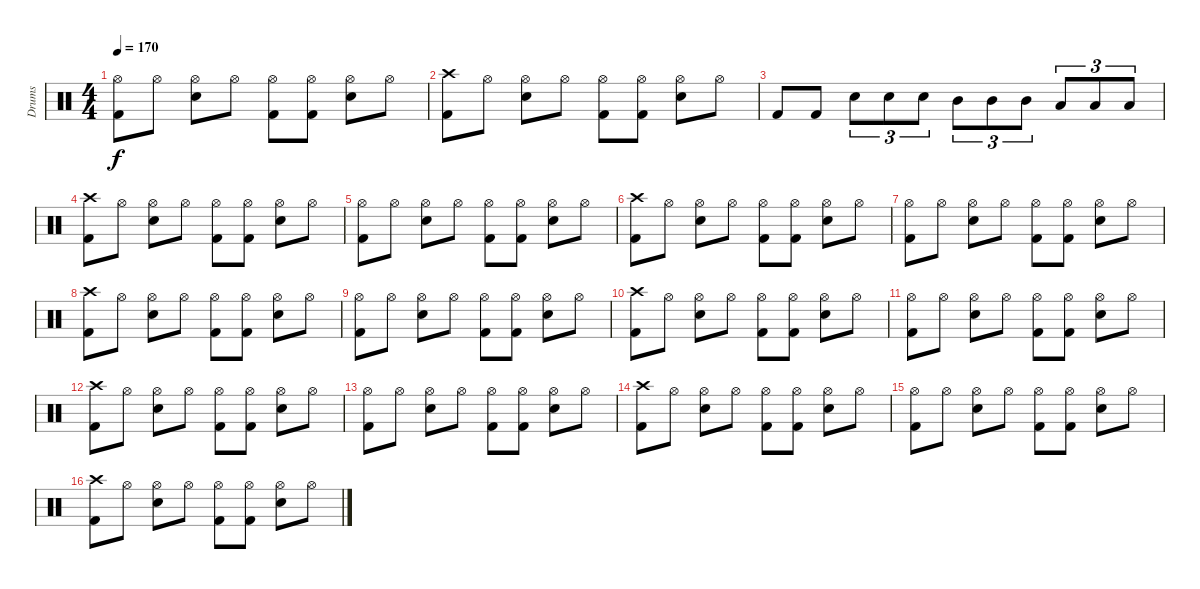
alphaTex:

\track ("Drums" "Drums") {instrument percussion}
\staff {score}
\articulation defaults
\ts (4 4)
\tempo 170
\clef neutral
\ks c
("Hi-Hat (open)" "Kick (hit) 2").8{dy f} "Hi-Hat (open)".8 ("Hi-Hat (open)" "Snare (hit) 2").8 "Hi-Hat (open)".8 ("Hi-Hat (open)" "Kick (hit) 2").8 ("Hi-Hat (open)" "Kick (hit) 2").8 ("Hi-Hat (open)" "Snare (hit) 2").8 "Hi-Hat (open)".8 |
("Crash high (hit)" "Kick (hit) 2").8 "Hi-Hat (open)".8 ("Hi-Hat (open)" "Snare (hit) 2").8 "Hi-Hat (open)".8 ("Hi-Hat (open)" "Kick (hit) 2").8 ("Hi-Hat (open)" "Kick (hit) 2").8 ("Hi-Hat (open)" "Snare (hit) 2").8 "Hi-Hat (open)".8 |
"Kick (hit) 2".8 "Kick (hit) 2".8 "Snare (hit) 2".8{tu (3 2)} "Snare (hit) 2".8{tu (3 2)} "Snare (hit) 2".8{tu (3 2)} "Mid Tom (hit)".8{tu (3 2)} "Mid Tom (hit)".8{tu (3 2)} "Mid Tom (hit)".8{tu (3 2)} "Low Tom (hit)".8{tu (3 2)} "Low Tom (hit)".8{tu (3 2)} "Low Tom (hit)".8{tu (3 2)} |
("Crash high (hit)" "Kick (hit) 2").8 "Hi-Hat (open)".8 ("Hi-Hat (open)" "Snare (hit) 2").8 "Hi-Hat (open)".8 ("Hi-Hat (open)" "Kick (hit) 2").8 ("Hi-Hat (open)" "Kick (hit) 2").8 ("Hi-Hat (open)" "Snare (hit) 2").8 "Hi-Hat (open)".8 |
("Hi-Hat (open)" "Kick (hit) 2").8 "Hi-Hat (open)".8 ("Hi-Hat (open)" "Snare (hit) 2").8 "Hi-Hat (open)".8 ("Hi-Hat (open)" "Kick (hit) 2").8 ("Hi-Hat (open)" "Kick (hit) 2").8 ("Hi-Hat (open)" "Snare (hit) 2").8 "Hi-Hat (open)".8 |
("Crash high (hit)" "Kick (hit) 2").8 "Hi-Hat (open)".8 ("Hi-Hat (open)" "Snare (hit) 2").8 "Hi-Hat (open)".8 ("Hi-Hat (open)" "Kick (hit) 2").8 ("Hi-Hat (open)" "Kick (hit) 2").8 ("Hi-Hat (open)" "Snare (hit) 2").8 "Hi-Hat (open)".8 |
("Hi-Hat (open)" "Kick (hit) 2").8 "Hi-Hat (open)".8 ("Hi-Hat (open)" "Snare (hit) 2").8 "Hi-Hat (open)".8 ("Hi-Hat (open)" "Kick (hit) 2").8 ("Hi-Hat (open)" "Kick (hit) 2").8 ("Hi-Hat (open)" "Snare (hit) 2").8 "Hi-Hat (open)".8 |
("Crash high (hit)" "Kick (hit) 2").8 "Hi-Hat (open)".8 ("Hi-Hat (open)" "Snare (hit) 2").8 "Hi-Hat (open)".8 ("Hi-Hat (open)" "Kick (hit) 2").8 ("Hi-Hat (open)" "Kick (hit) 2").8 ("Hi-Hat (open)" "Snare (hit) 2").8 "Hi-Hat (open)".8 |
("Hi-Hat (open)" "Kick (hit) 2").8 "Hi-Hat (open)".8 ("Hi-Hat (open)" "Snare (hit) 2").8 "Hi-Hat (open)".8 ("Hi-Hat (open)" "Kick (hit) 2").8 ("Hi-Hat (open)" "Kick (hit) 2").8 ("Hi-Hat (open)" "Snare (hit) 2").8 "Hi-Hat (open)".8 |
("Crash high (hit)" "Kick (hit) 2").8 "Hi-Hat (open)".8 ("Hi-Hat (open)" "Snare (hit) 2").8 "Hi-Hat (open)".8 ("Hi-Hat (open)" "Kick (hit) 2").8 ("Hi-Hat (open)" "Kick (hit) 2").8 ("Hi-Hat (open)" "Snare (hit) 2").8 "Hi-Hat (open)".8 |
("Hi-Hat (open)" "Kick (hit) 2").8 "Hi-Hat (open)".8 ("Hi-Hat (open)" "Snare (hit) 2").8 "Hi-Hat (open)".8 ("Hi-Hat (open)" "Kick (hit) 2").8 ("Hi-Hat (open)" "Kick (hit) 2").8 ("Hi-Hat (open)" "Snare (hit) 2").8 "Hi-Hat (open)".8 |
("Crash high (hit)" "Kick (hit) 2").8 "Hi-Hat (open)".8 ("Hi-Hat (open)" "Snare (hit) 2").8 "Hi-Hat (open)".8 ("Hi-Hat (open)" "Kick (hit) 2").8 ("Hi-Hat (open)" "Kick (hit) 2").8 ("Hi-Hat (open)" "Snare (hit) 2").8 "Hi-Hat (open)".8 |
("Hi-Hat (open)" "Kick (hit) 2").8 "Hi-Hat (open)".8 ("Hi-Hat (open)" "Snare (hit) 2").8 "Hi-Hat (open)".8 ("Hi-Hat (open)" "Kick (hit) 2").8 ("Hi-Hat (open)" "Kick (hit) 2").8 ("Hi-Hat (open)" "Snare (hit) 2").8 "Hi-Hat (open)".8 |
("Crash high (hit)" "Kick (hit) 2").8 "Hi-Hat (open)".8 ("Hi-Hat (open)" "Snare (hit) 2").8 "Hi-Hat (open)".8 ("Hi-Hat (open)" "Kick (hit) 2").8 ("Hi-Hat (open)" "Kick (hit) 2").8 ("Hi-Hat (open)" "Snare (hit) 2").8 "Hi-Hat (open)".8 |
("Hi-Hat (open)" "Kick (hit) 2").8 "Hi-Hat (open)".8 ("Hi-Hat (open)" "Snare (hit) 2").8 "Hi-Hat (open)".8 ("Hi-Hat (open)" "Kick (hit) 2").8 ("Hi-Hat (open)" "Kick (hit) 2").8 ("Hi-Hat (open)" "Snare (hit) 2").8 "Hi-Hat (open)".8 |
("Crash high (hit)" "Kick (hit) 2").8 "Hi-Hat (open)".8 ("Hi-Hat (open)" "Snare (hit) 2").8 "Hi-Hat (open)".8 ("Hi-Hat (open)" "Kick (hit) 2").8 ("Hi-Hat (open)" "Kick (hit) 2").8 ("Hi-Hat (open)" "Snare (hit) 2").8 "Hi-Hat (open)".8
